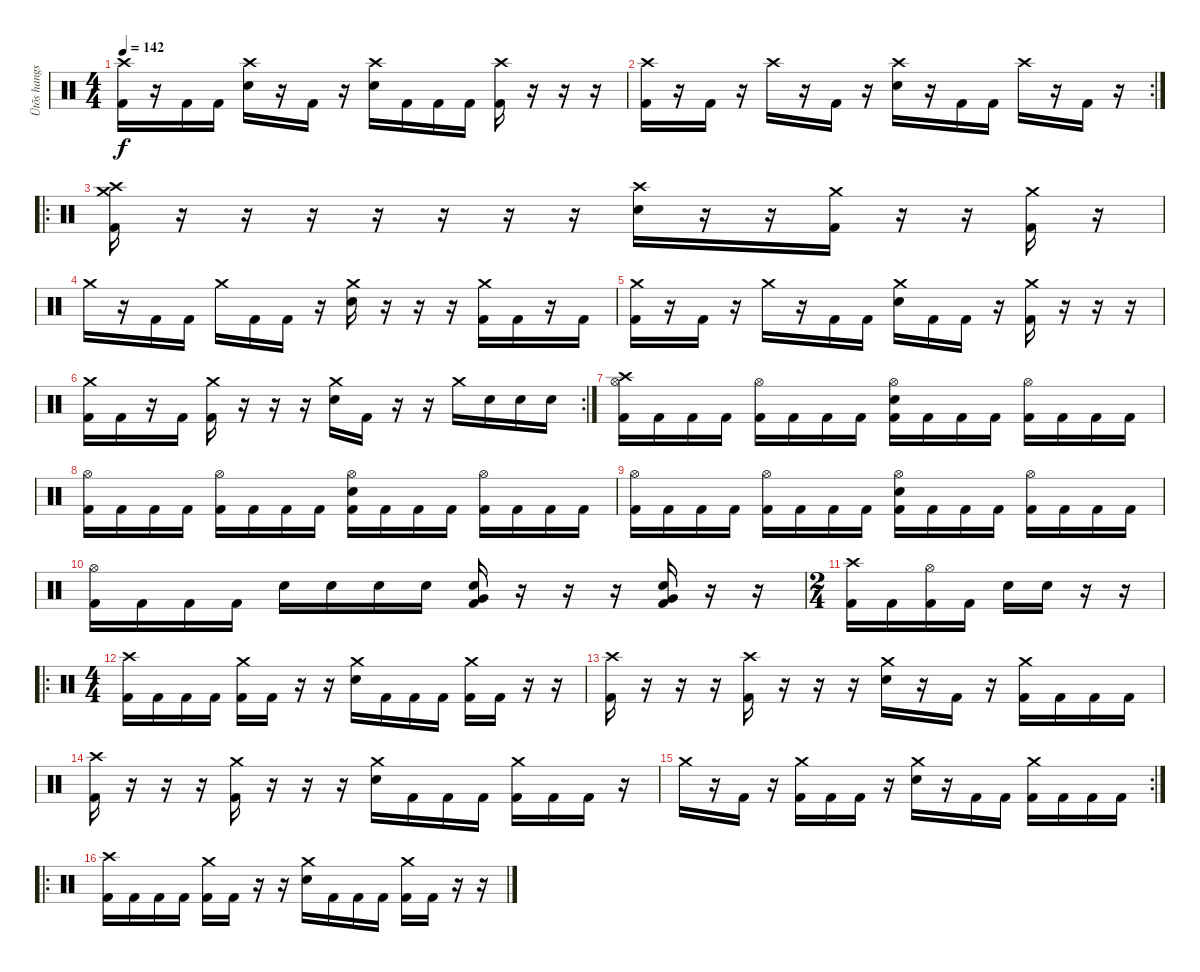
\track ("Ütõs hangszer" "Ütõs hangs") {instrument percussion}
\staff {score}
\articulation defaults
\ts (4 4)
\tempo 142
\clef neutral
\ks c
("Crash high (hit)" "Kick (hit) 2").16{dy f} r.16 "Kick (hit) 2".16 "Kick (hit) 2".16 ("Crash high (hit)" "Electric Snare (hit)").16 r.16 "Kick (hit) 2".16 r.16 ("Crash high (hit)" "Electric Snare (hit)").16 "Kick (hit) 2".16 "Kick (hit) 2".16 "Kick (hit) 2".16 ("Crash high (hit)" "Kick (hit) 2").16 r.16 r.16 r.16 |
\rc 2
("Crash high (hit)" "Kick (hit) 2").16 r.16 "Kick (hit) 2".16 r.16 "Crash high (hit)".16 r.16 "Kick (hit) 2".16 r.16 ("Crash high (hit)" "Electric Snare (hit)").16 r.16 "Kick (hit) 2".16 "Kick (hit) 2".16 "Crash high (hit)".16 r.16 "Kick (hit) 2".16 r.16 |
\ro
("Crash high (hit)" "Crash medium (hit)" "Kick (hit) 2").16 r.16 r.16 r.16 r.16 r.16 r.16 r.16 ("Crash high (hit)" "Electric Snare (hit)").16 r.16 r.16 ("Crash medium (hit)" "Kick (hit) 2").16 r.16 r.16 ("Crash medium (hit)" "Kick (hit) 2").16 r.16 |
"Crash medium (hit)".16 r.16 "Kick (hit) 2".16 "Kick (hit) 2".16 "Crash medium (hit)".16 "Kick (hit) 2".16 "Kick (hit) 2".16 r.16 ("Crash medium (hit)" "Electric Snare (hit)").16 r.16 r.16 r.16 ("Crash medium (hit)" "Kick (hit) 2").16 "Kick (hit) 2".16 r.16 "Kick (hit) 2".16 |
("Crash medium (hit)" "Kick (hit) 2").16 r.16 "Kick (hit) 2".16 r.16 "Crash medium (hit)".16 r.16 "Kick (hit) 2".16 "Kick (hit) 2".16 ("Crash medium (hit)" "Electric Snare (hit)").16 "Kick (hit) 2".16 "Kick (hit) 2".16 r.16 ("Crash medium (hit)" "Kick (hit) 2").16 r.16 r.16 r.16 |
\rc 2
("Crash medium (hit)" "Kick (hit) 2").16 "Kick (hit) 2".16 r.16 "Kick (hit) 2".16 ("Crash medium (hit)" "Kick (hit) 2").16 r.16 r.16 r.16 ("Crash medium (hit)" "Electric Snare (hit)").16 "Kick (hit) 2".16 r.16 r.16 "Crash medium (hit)".16 "Electric Snare (hit)".16 "Electric Snare (hit)".16 "Electric Snare (hit)".16 |
("Crash high (hit)" "Hi-Hat (open)" "Kick (hit) 2").16 "Kick (hit) 2".16 "Kick (hit) 2".16 "Kick (hit) 2".16 ("Hi-Hat (open)" "Kick (hit) 2").16 "Kick (hit) 2".16 "Kick (hit) 2".16 "Kick (hit) 2".16 ("Hi-Hat (open)" "Electric Snare (hit)" "Kick (hit) 2").16 "Kick (hit) 2".16 "Kick (hit) 2".16 "Kick (hit) 2".16 ("Hi-Hat (open)" "Kick (hit) 2").16 "Kick (hit) 2".16 "Kick (hit) 2".16 "Kick (hit) 2".16 |
("Hi-Hat (open)" "Kick (hit) 2").16 "Kick (hit) 2".16 "Kick (hit) 2".16 "Kick (hit) 2".16 ("Hi-Hat (open)" "Kick (hit) 2").16 "Kick (hit) 2".16 "Kick (hit) 2".16 "Kick (hit) 2".16 ("Hi-Hat (open)" "Electric Snare (hit)" "Kick (hit) 2").16 "Kick (hit) 2".16 "Kick (hit) 2".16 "Kick (hit) 2".16 ("Hi-Hat (open)" "Kick (hit) 2").16 "Kick (hit) 2".16 "Kick (hit) 2".16 "Kick (hit) 2".16 |
("Hi-Hat (open)" "Kick (hit) 2").16 "Kick (hit) 2".16 "Kick (hit) 2".16 "Kick (hit) 2".16 ("Hi-Hat (open)" "Kick (hit) 2").16 "Kick (hit) 2".16 "Kick (hit) 2".16 "Kick (hit) 2".16 ("Hi-Hat (open)" "Electric Snare (hit)" "Kick (hit) 2").16 "Kick (hit) 2".16 "Kick (hit) 2".16 "Kick (hit) 2".16 ("Hi-Hat (open)" "Kick (hit) 2").16 "Kick (hit) 2".16 "Kick (hit) 2".16 "Kick (hit) 2".16 |
("Hi-Hat (open)" "Kick (hit) 2").16 "Kick (hit) 2".16 "Kick (hit) 2".16 "Kick (hit) 2".16 "Electric Snare (hit)".16 "Electric Snare (hit)".16 "Electric Snare (hit)".16 "Electric Snare (hit)".16 ("Electric Snare (hit)" "Very Low Tom (hit)" "Kick (hit) 2").16 r.16 r.16 r.16 ("Electric Snare (hit)" "Very Low Tom (hit)" "Kick (hit) 2").16 r.16 r.16 |
\ts (2 4)
("Crash high (hit)" "Kick (hit) 2").16 "Kick (hit) 2".16 ("Hi-Hat (open)" "Kick (hit) 2").16 "Kick (hit) 2".16 "Electric Snare (hit)".16 "Electric Snare (hit)".16 r.16 r.16 |
\ro
\ts (4 4)
("Crash high (hit)" "Kick (hit) 2").16 "Kick (hit) 2".16 "Kick (hit) 2".16 "Kick (hit) 2".16 ("Crash medium (hit)" "Kick (hit) 2").16 "Kick (hit) 2".16 r.16 r.16 ("Crash medium (hit)" "Electric Snare (hit)").16 "Kick (hit) 2".16 "Kick (hit) 2".16 "Kick (hit) 2".16 ("Crash medium (hit)" "Kick (hit) 2").16 "Kick (hit) 2".16 r.16 r.16 |
("Crash high (hit)" "Kick (hit) 2").16 r.16 r.16 r.16 ("Crash high (hit)" "Kick (hit) 2").16 r.16 r.16 r.16 ("Crash medium (hit)" "Electric Snare (hit)").16 r.16 "Kick (hit) 2".16 r.16 ("Crash medium (hit)" "Kick (hit) 2").16 "Kick (hit) 2".16 "Kick (hit) 2".16 "Kick (hit) 2".16 |
("Crash high (hit)" "Kick (hit) 2").16 r.16 r.16 r.16 ("Crash medium (hit)" "Kick (hit) 2").16 r.16 r.16 r.16 ("Crash medium (hit)" "Electric Snare (hit)").16 "Kick (hit) 2".16 "Kick (hit) 2".16 "Kick (hit) 2".16 ("Crash medium (hit)" "Kick (hit) 2").16 "Kick (hit) 2".16 "Kick (hit) 2".16 r.16 |
\rc 2 "Crash medium (hit)".16
r.16 "Kick (hit) 2".16 r.16 ("Crash medium (hit)" "Kick (hit) 2").16 "Kick (hit) 2".16 "Kick (hit) 2".16 r.16 ("Crash medium (hit)" "Electric Snare (hit)").16 r.16 "Kick (hit) 2".16 "Kick (hit) 2".16 ("Crash medium (hit)" "Kick (hit) 2").16 "Kick (hit) 2".16 "Kick (hit) 2".16 "Kick (hit) 2".16 |
\ro
("Crash high (hit)" "Kick (hit) 2").16 "Kick (hit) 2".16 "Kick (hit) 2".16 "Kick (hit) 2".16 ("Crash medium (hit)" "Kick (hit) 2").16 "Kick (hit) 2".16 r.16 r.16 ("Crash medium (hit)" "Electric Snare (hit)").16 "Kick (hit) 2".16 "Kick (hit) 2".16 "Kick (hit) 2".16 ("Crash medium (hit)" "Kick (hit) 2").16 "Kick (hit) 2".16 r.16 r.16
